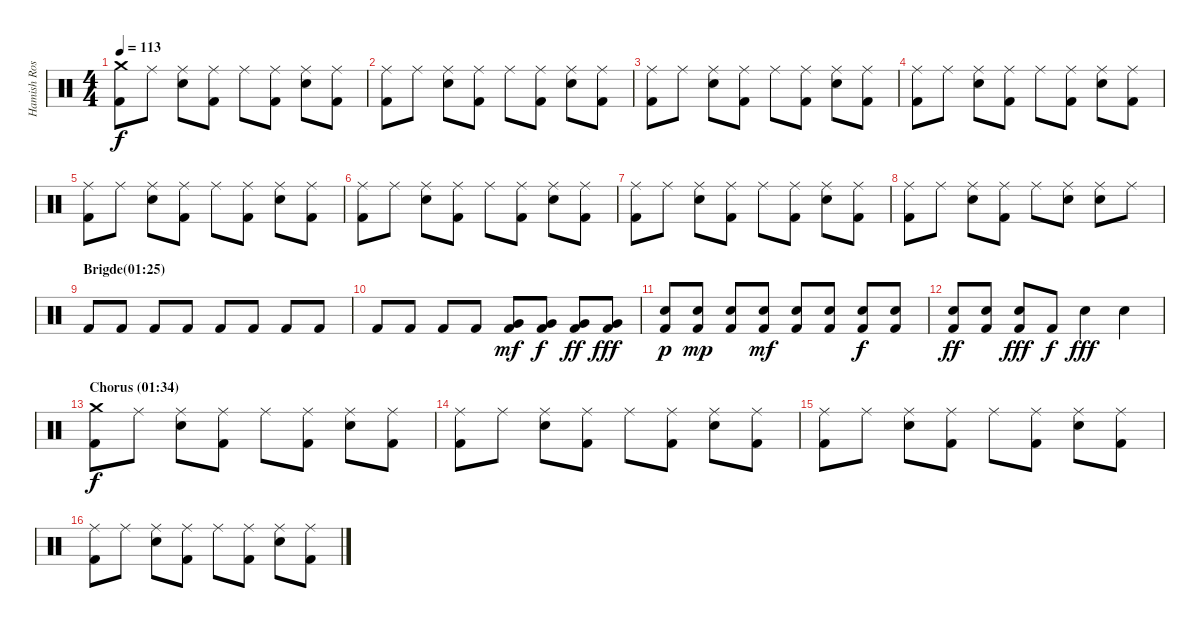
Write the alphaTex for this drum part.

\track ("Hamish Rosser" "Hamish Ros") {instrument percussion}
\staff {score}
\articulation defaults
\ts (4 4)
\tempo 113
\clef neutral
\ks c
("Crash medium (hit)" "Kick (hit) 2").8{dy f} "Ride (middle)".8 ("Ride (middle)" "Electric Snare (hit)").8 ("Ride (middle)" "Kick (hit) 2").8 "Ride (middle)".8 ("Ride (middle)" "Kick (hit) 2").8 ("Ride (middle)" "Electric Snare (hit)").8 ("Ride (middle)" "Kick (hit) 2").8 |
("Ride (middle)" "Kick (hit) 2").8 "Ride (middle)".8 ("Ride (middle)" "Electric Snare (hit)").8 ("Ride (middle)" "Kick (hit) 2").8 "Ride (middle)".8 ("Ride (middle)" "Kick (hit) 2").8 ("Ride (middle)" "Electric Snare (hit)").8 ("Ride (middle)" "Kick (hit) 2").8 |
("Ride (middle)" "Kick (hit) 2").8 "Ride (middle)".8 ("Ride (middle)" "Electric Snare (hit)").8 ("Ride (middle)" "Kick (hit) 2").8 "Ride (middle)".8 ("Ride (middle)" "Kick (hit) 2").8 ("Ride (middle)" "Electric Snare (hit)").8 ("Ride (middle)" "Kick (hit) 2").8 |
("Ride (middle)" "Kick (hit) 2").8 "Ride (middle)".8 ("Ride (middle)" "Electric Snare (hit)").8 ("Ride (middle)" "Kick (hit) 2").8 "Ride (middle)".8 ("Ride (middle)" "Kick (hit) 2").8 ("Ride (middle)" "Electric Snare (hit)").8 ("Ride (middle)" "Kick (hit) 2").8 |
("Ride (middle)" "Kick (hit) 2").8 "Ride (middle)".8 ("Ride (middle)" "Electric Snare (hit)").8 ("Ride (middle)" "Kick (hit) 2").8 "Ride (middle)".8 ("Ride (middle)" "Kick (hit) 2").8 ("Ride (middle)" "Electric Snare (hit)").8 ("Ride (middle)" "Kick (hit) 2").8 |
("Ride (middle)" "Kick (hit) 2").8 "Ride (middle)".8 ("Ride (middle)" "Electric Snare (hit)").8 ("Ride (middle)" "Kick (hit) 2").8 "Ride (middle)".8 ("Ride (middle)" "Kick (hit) 2").8 ("Ride (middle)" "Electric Snare (hit)").8 ("Ride (middle)" "Kick (hit) 2").8 |
("Ride (middle)" "Kick (hit) 2").8 "Ride (middle)".8 ("Ride (middle)" "Electric Snare (hit)").8 ("Ride (middle)" "Kick (hit) 2").8 "Ride (middle)".8 ("Ride (middle)" "Kick (hit) 2").8 ("Ride (middle)" "Electric Snare (hit)").8 ("Ride (middle)" "Kick (hit) 2").8 |
("Ride (middle)" "Kick (hit) 2").8 "Ride (middle)".8 ("Ride (middle)" "Electric Snare (hit)").8 ("Ride (middle)" "Kick (hit) 2").8 "Ride (middle)".8 ("Ride (middle)" "Electric Snare (hit)").8 ("Ride (middle)" "Electric Snare (hit)").8 "Ride (middle)".8 |
\section ("" "Brigde(01:25)")
"Kick (hit) 2".8 "Kick (hit) 2".8 "Kick (hit) 2".8 "Kick (hit) 2".8 "Kick (hit) 2".8 "Kick (hit) 2".8 "Kick (hit) 2".8 "Kick (hit) 2".8 |
"Kick (hit) 2".8 "Kick (hit) 2".8 "Kick (hit) 2".8 "Kick (hit) 2".8 ("Very Low Tom (hit)" "Kick (hit) 2").8{dy mf} ("Very Low Tom (hit)" "Kick (hit) 2").8{dy f} ("Very Low Tom (hit)" "Kick (hit) 2").8{dy ff} ("Very Low Tom (hit)" "Kick (hit) 2").8{dy fff} |
("Electric Snare (hit)" "Kick (hit) 2").8{dy p} ("Electric Snare (hit)" "Kick (hit) 2").8{dy mp} ("Electric Snare (hit)" "Kick (hit) 2").8 ("Electric Snare (hit)" "Kick (hit) 2").8{dy mf} ("Electric Snare (hit)" "Kick (hit) 2").8 ("Electric Snare (hit)" "Kick (hit) 2").8 ("Electric Snare (hit)" "Kick (hit) 2").8{dy f} ("Electric Snare (hit)" "Kick (hit) 2").8 |
("Electric Snare (hit)" "Kick (hit) 2").8{dy ff} ("Electric Snare (hit)" "Kick (hit) 2").8 ("Electric Snare (hit)" "Kick (hit) 2").8{dy fff} "Kick (hit) 2".8{dy f} "Electric Snare (hit)".4{dy fff} "Electric Snare (hit)".4 |
\section ("" "Chorus (01:34)")
("Crash medium (hit)" "Kick (hit) 2").8{dy f} "Ride (middle)".8 ("Ride (middle)" "Electric Snare (hit)").8 ("Ride (middle)" "Kick (hit) 2").8 "Ride (middle)".8 ("Ride (middle)" "Kick (hit) 2").8 ("Ride (middle)" "Electric Snare (hit)").8 ("Ride (middle)" "Kick (hit) 2").8 |
("Ride (middle)" "Kick (hit) 2").8 "Ride (middle)".8 ("Ride (middle)" "Electric Snare (hit)").8 ("Ride (middle)" "Kick (hit) 2").8 "Ride (middle)".8 ("Ride (middle)" "Kick (hit) 2").8 ("Ride (middle)" "Electric Snare (hit)").8 ("Ride (middle)" "Kick (hit) 2").8 |
("Ride (middle)" "Kick (hit) 2").8 "Ride (middle)".8 ("Ride (middle)" "Electric Snare (hit)").8 ("Ride (middle)" "Kick (hit) 2").8 "Ride (middle)".8 ("Ride (middle)" "Kick (hit) 2").8 ("Ride (middle)" "Electric Snare (hit)").8 ("Ride (middle)" "Kick (hit) 2").8 |
("Ride (middle)" "Kick (hit) 2").8 "Ride (middle)".8 ("Ride (middle)" "Electric Snare (hit)").8 ("Ride (middle)" "Kick (hit) 2").8 "Ride (middle)".8 ("Ride (middle)" "Kick (hit) 2").8 ("Ride (middle)" "Electric Snare (hit)").8 ("Ride (middle)" "Kick (hit) 2").8
